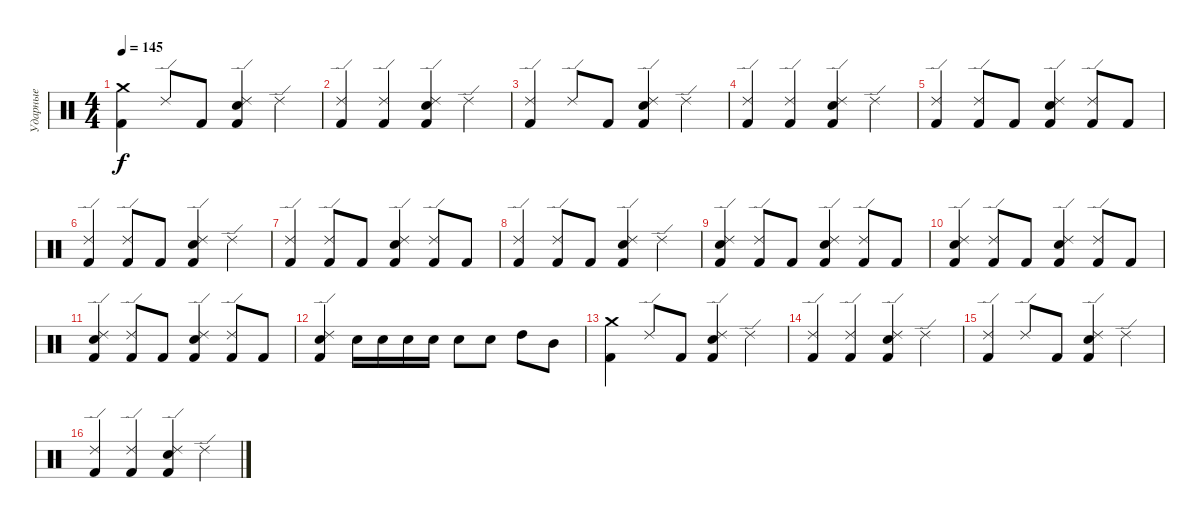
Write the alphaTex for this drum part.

\track ("Ударные" "Ударные") {instrument percussion}
\staff {score}
\articulation defaults
\ts (4 4)
\tempo 145
\clef neutral
\ks c
("Crash medium (hit)" "Kick (hit) 2").4{dy f} "Ride (edge) 2".8 "Kick (hit) 2".8 ("Ride (edge) 2" "Electric Snare (hit)" "Kick (hit) 2").4 "Ride (edge) 2".4 |
("Ride (edge) 2" "Kick (hit) 2").4 ("Ride (edge) 2" "Kick (hit) 2").4 ("Ride (edge) 2" "Electric Snare (hit)" "Kick (hit) 2").4 "Ride (edge) 2".4 |
("Ride (edge) 2" "Kick (hit) 2").4 "Ride (edge) 2".8 "Kick (hit) 2".8 ("Ride (edge) 2" "Electric Snare (hit)" "Kick (hit) 2").4 "Ride (edge) 2".4 |
("Ride (edge) 2" "Kick (hit) 2").4 ("Ride (edge) 2" "Kick (hit) 2").4 ("Ride (edge) 2" "Electric Snare (hit)" "Kick (hit) 2").4 "Ride (edge) 2".4 |
("Ride (edge) 2" "Kick (hit) 2").4 ("Ride (edge) 2" "Kick (hit) 2").8 "Kick (hit) 2".8 ("Ride (edge) 2" "Electric Snare (hit)" "Kick (hit) 2").4 ("Ride (edge) 2" "Kick (hit) 2").8 "Kick (hit) 2".8 |
("Ride (edge) 2" "Kick (hit) 2").4 ("Ride (edge) 2" "Kick (hit) 2").8 "Kick (hit) 2".8 ("Ride (edge) 2" "Electric Snare (hit)" "Kick (hit) 2").4 "Ride (edge) 2".4 |
("Ride (edge) 2" "Kick (hit) 2").4 ("Ride (edge) 2" "Kick (hit) 2").8 "Kick (hit) 2".8 ("Ride (edge) 2" "Electric Snare (hit)" "Kick (hit) 2").4 ("Ride (edge) 2" "Kick (hit) 2").8 "Kick (hit) 2".8 |
("Ride (edge) 2" "Kick (hit) 2").4 ("Ride (edge) 2" "Kick (hit) 2").8 "Kick (hit) 2".8 ("Ride (edge) 2" "Electric Snare (hit)" "Kick (hit) 2").4 "Ride (edge) 2".4 |
("Ride (edge) 2" "Electric Snare (hit)" "Kick (hit) 2").4 ("Ride (edge) 2" "Kick (hit) 2").8 "Kick (hit) 2".8 ("Ride (edge) 2" "Electric Snare (hit)" "Kick (hit) 2").4 ("Ride (edge) 2" "Kick (hit) 2").8 "Kick (hit) 2".8 |
("Ride (edge) 2" "Electric Snare (hit)" "Kick (hit) 2").4 ("Ride (edge) 2" "Kick (hit) 2").8 "Kick (hit) 2".8 ("Ride (edge) 2" "Electric Snare (hit)" "Kick (hit) 2").4 ("Ride (edge) 2" "Kick (hit) 2").8 "Kick (hit) 2".8 |
("Ride (edge) 2" "Electric Snare (hit)" "Kick (hit) 2").4 ("Ride (edge) 2" "Kick (hit) 2").8 "Kick (hit) 2".8 ("Ride (edge) 2" "Electric Snare (hit)" "Kick (hit) 2").4 ("Ride (edge) 2" "Kick (hit) 2").8 "Kick (hit) 2".8 |
("Ride (edge) 2" "Electric Snare (hit)" "Kick (hit) 2").4 "Electric Snare (hit)".16 "Electric Snare (hit)".16 "Electric Snare (hit)".16 "Electric Snare (hit)".16 "Electric Snare (hit)".8 "Electric Snare (hit)".8 "High Tom (hit)".8 "Mid Tom (hit)".8 |
("Crash medium (hit)" "Kick (hit) 2").4 "Ride (edge) 2".8 "Kick (hit) 2".8 ("Ride (edge) 2" "Electric Snare (hit)" "Kick (hit) 2").4 "Ride (edge) 2".4 |
("Ride (edge) 2" "Kick (hit) 2").4 ("Ride (edge) 2" "Kick (hit) 2").4 ("Ride (edge) 2" "Electric Snare (hit)" "Kick (hit) 2").4 "Ride (edge) 2".4 |
("Ride (edge) 2" "Kick (hit) 2").4 "Ride (edge) 2".8 "Kick (hit) 2".8 ("Ride (edge) 2" "Electric Snare (hit)" "Kick (hit) 2").4 "Ride (edge) 2".4 |
("Ride (edge) 2" "Kick (hit) 2").4 ("Ride (edge) 2" "Kick (hit) 2").4 ("Ride (edge) 2" "Electric Snare (hit)" "Kick (hit) 2").4 "Ride (edge) 2".4
